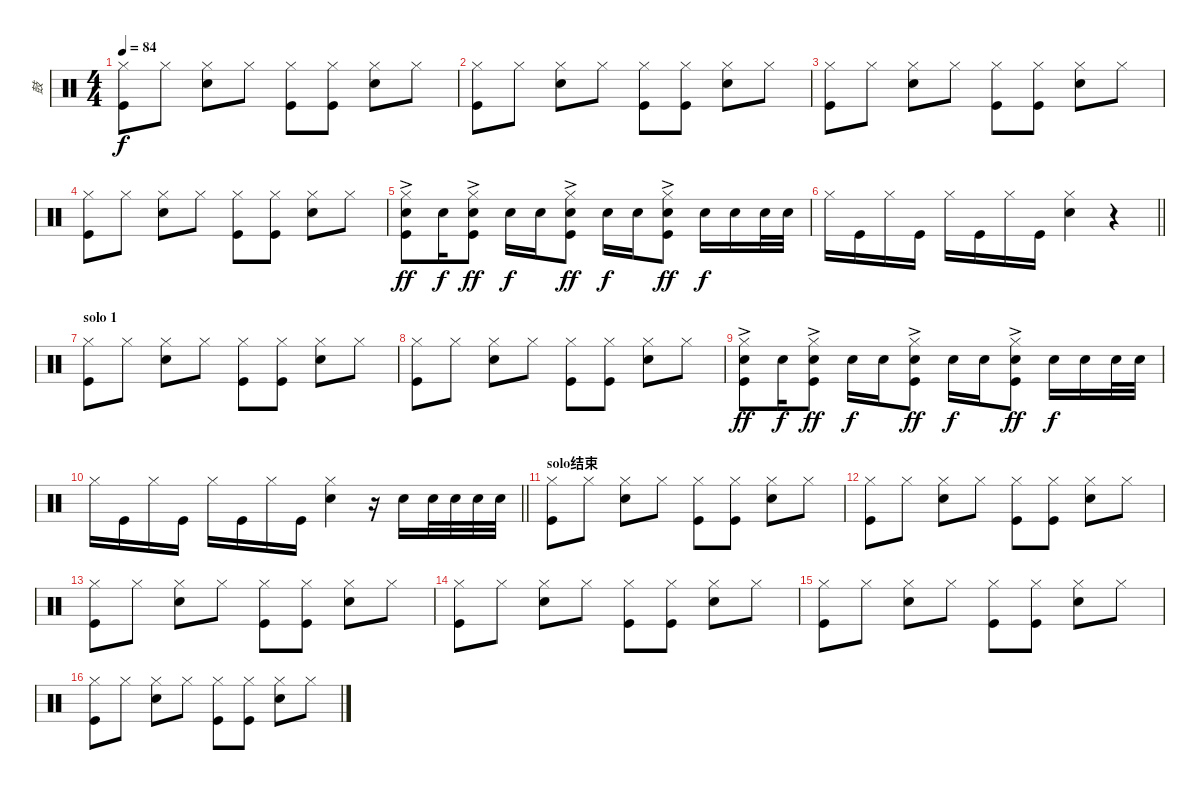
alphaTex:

\track ("鼓" "鼓") {instrument percussion}
\staff {score}
\articulation defaults
\ts (4 4)
\tempo 84
\clef neutral
\ks c
("Hi-Hat (closed)" "Kick (hit)").8{dy f} "Hi-Hat (closed)".8 ("Hi-Hat (closed)" "Snare (hit) 2").8 "Hi-Hat (closed)".8 ("Hi-Hat (closed)" "Kick (hit)").8 ("Hi-Hat (closed)" "Kick (hit)").8 ("Hi-Hat (closed)" "Snare (hit) 2").8 "Hi-Hat (closed)".8 |
("Hi-Hat (closed)" "Kick (hit)").8 "Hi-Hat (closed)".8 ("Hi-Hat (closed)" "Snare (hit) 2").8 "Hi-Hat (closed)".8 ("Hi-Hat (closed)" "Kick (hit)").8 ("Hi-Hat (closed)" "Kick (hit)").8 ("Hi-Hat (closed)" "Snare (hit) 2").8 "Hi-Hat (closed)".8 |
("Hi-Hat (closed)" "Kick (hit)").8 "Hi-Hat (closed)".8 ("Hi-Hat (closed)" "Snare (hit) 2").8 "Hi-Hat (closed)".8 ("Hi-Hat (closed)" "Kick (hit)").8 ("Hi-Hat (closed)" "Kick (hit)").8 ("Hi-Hat (closed)" "Snare (hit) 2").8 "Hi-Hat (closed)".8 |
("Hi-Hat (closed)" "Kick (hit)").8 "Hi-Hat (closed)".8 ("Hi-Hat (closed)" "Snare (hit) 2").8 "Hi-Hat (closed)".8 ("Hi-Hat (closed)" "Kick (hit)").8 ("Hi-Hat (closed)" "Kick (hit)").8 ("Hi-Hat (closed)" "Snare (hit) 2").8 "Hi-Hat (closed)".8 |
("Hi-Hat (closed)" "Snare (hit) 2" "Kick (hit)"{ac}).8{dy ff} "Snare (hit) 2".16{dy f} ("Hi-Hat (closed)" "Snare (hit) 2" "Kick (hit)"{ac}).8{dy ff} "Snare (hit) 2".16{dy f} "Snare (hit) 2".16 ("Hi-Hat (closed)" "Snare (hit) 2" "Kick (hit)"{ac}).8{dy ff} "Snare (hit) 2".16{dy f} "Snare (hit) 2".16 ("Hi-Hat (closed)" "Snare (hit) 2" "Kick (hit)"{ac}).8{dy ff} "Snare (hit) 2".16{dy f} "Snare (hit) 2".16 "Snare (hit) 2".32 "Snare (hit) 2".32 |
\barLineRight lightlight "Hi-Hat (closed)".16 "Kick (hit)".16 "Hi-Hat (closed)".16 "Kick (hit)".16 "Hi-Hat (closed)".16 "Kick (hit)".16 "Hi-Hat (closed)".16 "Kick (hit)".16
("Hi-Hat (closed)" "Snare (hit) 2").4 r.4 |
\section ("" "solo 1")
("Hi-Hat (closed)" "Kick (hit)").8 "Hi-Hat (closed)".8 ("Hi-Hat (closed)" "Snare (hit) 2").8 "Hi-Hat (closed)".8 ("Hi-Hat (closed)" "Kick (hit)").8 ("Hi-Hat (closed)" "Kick (hit)").8 ("Hi-Hat (closed)" "Snare (hit) 2").8 "Hi-Hat (closed)".8 |
("Hi-Hat (closed)" "Kick (hit)").8 "Hi-Hat (closed)".8 ("Hi-Hat (closed)" "Snare (hit) 2").8 "Hi-Hat (closed)".8 ("Hi-Hat (closed)" "Kick (hit)").8 ("Hi-Hat (closed)" "Kick (hit)").8 ("Hi-Hat (closed)" "Snare (hit) 2").8 "Hi-Hat (closed)".8 |
("Hi-Hat (closed)" "Snare (hit) 2" "Kick (hit)"{ac}).8{dy ff} "Snare (hit) 2".16{dy f} ("Hi-Hat (closed)" "Snare (hit) 2" "Kick (hit)"{ac}).8{dy ff} "Snare (hit) 2".16{dy f} "Snare (hit) 2".16 ("Hi-Hat (closed)" "Snare (hit) 2" "Kick (hit)"{ac}).8{dy ff} "Snare (hit) 2".16{dy f} "Snare (hit) 2".16 ("Hi-Hat (closed)" "Snare (hit) 2" "Kick (hit)"{ac}).8{dy ff} "Snare (hit) 2".16{dy f} "Snare (hit) 2".16 "Snare (hit) 2".32 "Snare (hit) 2".32 |
\barLineRight lightlight "Hi-Hat (closed)".16 "Kick (hit)".16 "Hi-Hat (closed)".16 "Kick (hit)".16 "Hi-Hat (closed)".16 "Kick (hit)".16 "Hi-Hat (closed)".16 "Kick (hit)".16
("Hi-Hat (closed)" "Snare (hit) 2").4 r.16 "Snare (hit) 2".16 "Snare (hit) 2".32 "Snare (hit) 2".32 "Snare (hit) 2".32 "Snare (hit) 2".32 |
\section ("" "solo结束")
("Hi-Hat (closed)" "Kick (hit)").8 "Hi-Hat (closed)".8 ("Hi-Hat (closed)" "Snare (hit) 2").8 "Hi-Hat (closed)".8 ("Hi-Hat (closed)" "Kick (hit)").8 ("Hi-Hat (closed)" "Kick (hit)").8 ("Hi-Hat (closed)" "Snare (hit) 2").8 "Hi-Hat (closed)".8 |
("Hi-Hat (closed)" "Kick (hit)").8 "Hi-Hat (closed)".8 ("Hi-Hat (closed)" "Snare (hit) 2").8 "Hi-Hat (closed)".8 ("Hi-Hat (closed)" "Kick (hit)").8 ("Hi-Hat (closed)" "Kick (hit)").8 ("Hi-Hat (closed)" "Snare (hit) 2").8 "Hi-Hat (closed)".8 |
("Hi-Hat (closed)" "Kick (hit)").8 "Hi-Hat (closed)".8 ("Hi-Hat (closed)" "Snare (hit) 2").8 "Hi-Hat (closed)".8 ("Hi-Hat (closed)" "Kick (hit)").8 ("Hi-Hat (closed)" "Kick (hit)").8 ("Hi-Hat (closed)" "Snare (hit) 2").8 "Hi-Hat (closed)".8 |
("Hi-Hat (closed)" "Kick (hit)").8 "Hi-Hat (closed)".8 ("Hi-Hat (closed)" "Snare (hit) 2").8 "Hi-Hat (closed)".8 ("Hi-Hat (closed)" "Kick (hit)").8 ("Hi-Hat (closed)" "Kick (hit)").8 ("Hi-Hat (closed)" "Snare (hit) 2").8 "Hi-Hat (closed)".8 |
("Hi-Hat (closed)" "Kick (hit)").8 "Hi-Hat (closed)".8 ("Hi-Hat (closed)" "Snare (hit) 2").8 "Hi-Hat (closed)".8 ("Hi-Hat (closed)" "Kick (hit)").8 ("Hi-Hat (closed)" "Kick (hit)").8 ("Hi-Hat (closed)" "Snare (hit) 2").8 "Hi-Hat (closed)".8 |
("Hi-Hat (closed)" "Kick (hit)").8 "Hi-Hat (closed)".8 ("Hi-Hat (closed)" "Snare (hit) 2").8 "Hi-Hat (closed)".8 ("Hi-Hat (closed)" "Kick (hit)").8 ("Hi-Hat (closed)" "Kick (hit)").8 ("Hi-Hat (closed)" "Snare (hit) 2").8 "Hi-Hat (closed)".8
